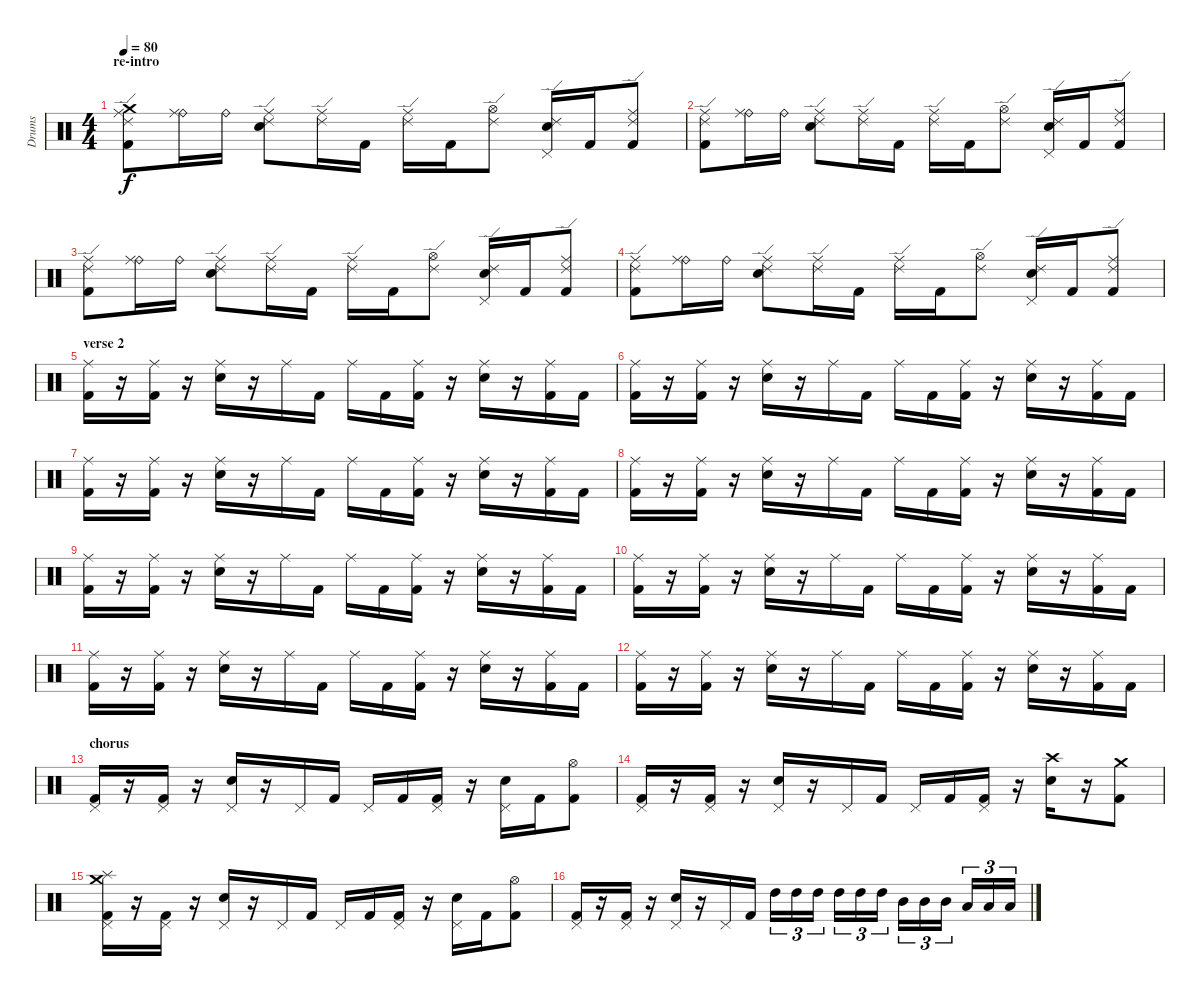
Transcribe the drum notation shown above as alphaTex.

\track ("Drums" "Drums") {instrument percussion}
\staff {score}
\articulation defaults
\ts (4 4)
\section ("" "re-intro")
\tempo 80
\clef neutral
\ks c
("Ride (edge) 2" "Ride (middle)" "Crash medium (hit)" "Kick (hit) 2").8{dy f} ("Ride (bell)" "Ride (middle)").16 "Ride (bell)".16 ("Ride (middle)" "Ride (edge) 2" "Snare (hit) 2").8 ("Ride (edge) 2" "Ride (middle)").16 "Kick (hit) 2".16 ("Ride (edge) 2" "Ride (middle)").16 "Kick (hit) 2".16 ("Ride (edge) 2" "Hi-Hat (open)").8 ("Ride (edge) 2" "Pedal Hi-Hat (hit)" "Snare (hit) 2").16 "Kick (hit) 2".16 ("Ride (edge) 2" "Ride (middle)" "Kick (hit) 2").8 |
("Ride (edge) 2" "Ride (middle)" "Kick (hit) 2").8 ("Ride (bell)" "Ride (middle)").16 "Ride (bell)".16 ("Ride (middle)" "Ride (edge) 2" "Snare (hit) 2").8 ("Ride (edge) 2" "Ride (middle)").16 "Kick (hit) 2".16 ("Ride (edge) 2" "Ride (middle)").16 "Kick (hit) 2".16 ("Ride (edge) 2" "Hi-Hat (open)").8 ("Ride (edge) 2" "Pedal Hi-Hat (hit)" "Snare (hit) 2").16 "Kick (hit) 2".16 ("Ride (edge) 2" "Ride (middle)" "Kick (hit) 2").8 |
("Ride (edge) 2" "Ride (middle)" "Kick (hit) 2").8 ("Ride (bell)" "Ride (middle)").16 "Ride (bell)".16 ("Ride (middle)" "Ride (edge) 2" "Snare (hit) 2").8 ("Ride (edge) 2" "Ride (middle)").16 "Kick (hit) 2".16 ("Ride (edge) 2" "Ride (middle)").16 "Kick (hit) 2".16 ("Ride (edge) 2" "Hi-Hat (open)").8 ("Ride (edge) 2" "Pedal Hi-Hat (hit)" "Snare (hit) 2").16 "Kick (hit) 2".16 ("Ride (edge) 2" "Ride (middle)" "Kick (hit) 2").8 |
("Ride (edge) 2" "Ride (middle)" "Kick (hit) 2").8 ("Ride (bell)" "Ride (middle)").16 "Ride (bell)".16 ("Ride (middle)" "Ride (edge) 2" "Snare (hit) 2").8 ("Ride (edge) 2" "Ride (middle)").16 "Kick (hit) 2".16 ("Ride (edge) 2" "Ride (middle)").16 "Kick (hit) 2".16 ("Ride (edge) 2" "Hi-Hat (open)").8 ("Ride (edge) 2" "Pedal Hi-Hat (hit)" "Snare (hit) 2").16 "Kick (hit) 2".16 ("Ride (edge) 2" "Ride (middle)" "Kick (hit) 2").8 |
\section ("" "verse 2")
("Ride (middle)" "Kick (hit) 2").16 r.16 ("Ride (middle)" "Kick (hit) 2").16 r.16 ("Ride (middle)" "Snare (hit) 2").16 r.16 "Ride (middle)".16 "Kick (hit) 2".16 "Ride (middle)".16 "Kick (hit) 2".16 ("Ride (middle)" "Kick (hit) 2").16 r.16 ("Ride (middle)" "Snare (hit) 2").16 r.16 ("Ride (middle)" "Kick (hit) 2").16 "Kick (hit) 2".16 |
("Ride (middle)" "Kick (hit) 2").16 r.16 ("Ride (middle)" "Kick (hit) 2").16 r.16 ("Ride (middle)" "Snare (hit) 2").16 r.16 "Ride (middle)".16 "Kick (hit) 2".16 "Ride (middle)".16 "Kick (hit) 2".16 ("Ride (middle)" "Kick (hit) 2").16 r.16 ("Ride (middle)" "Snare (hit) 2").16 r.16 ("Ride (middle)" "Kick (hit) 2").16 "Kick (hit) 2".16 |
("Ride (middle)" "Kick (hit) 2").16 r.16 ("Ride (middle)" "Kick (hit) 2").16 r.16 ("Ride (middle)" "Snare (hit) 2").16 r.16 "Ride (middle)".16 "Kick (hit) 2".16 "Ride (middle)".16 "Kick (hit) 2".16 ("Ride (middle)" "Kick (hit) 2").16 r.16 ("Ride (middle)" "Snare (hit) 2").16 r.16 ("Ride (middle)" "Kick (hit) 2").16 "Kick (hit) 2".16 |
("Ride (middle)" "Kick (hit) 2").16 r.16 ("Ride (middle)" "Kick (hit) 2").16 r.16 ("Ride (middle)" "Snare (hit) 2").16 r.16 "Ride (middle)".16 "Kick (hit) 2".16 "Ride (middle)".16 "Kick (hit) 2".16 ("Ride (middle)" "Kick (hit) 2").16 r.16 ("Ride (middle)" "Snare (hit) 2").16 r.16 ("Ride (middle)" "Kick (hit) 2").16 "Kick (hit) 2".16 |
("Ride (middle)" "Kick (hit) 2").16 r.16 ("Ride (middle)" "Kick (hit) 2").16 r.16 ("Ride (middle)" "Snare (hit) 2").16 r.16 "Ride (middle)".16 "Kick (hit) 2".16 "Ride (middle)".16 "Kick (hit) 2".16 ("Ride (middle)" "Kick (hit) 2").16 r.16 ("Ride (middle)" "Snare (hit) 2").16 r.16 ("Ride (middle)" "Kick (hit) 2").16 "Kick (hit) 2".16 |
("Ride (middle)" "Kick (hit) 2").16 r.16 ("Ride (middle)" "Kick (hit) 2").16 r.16 ("Ride (middle)" "Snare (hit) 2").16 r.16 "Ride (middle)".16 "Kick (hit) 2".16 "Ride (middle)".16 "Kick (hit) 2".16 ("Ride (middle)" "Kick (hit) 2").16 r.16 ("Ride (middle)" "Snare (hit) 2").16 r.16 ("Ride (middle)" "Kick (hit) 2").16 "Kick (hit) 2".16 |
("Ride (middle)" "Kick (hit) 2").16 r.16 ("Ride (middle)" "Kick (hit) 2").16 r.16 ("Ride (middle)" "Snare (hit) 2").16 r.16 "Ride (middle)".16 "Kick (hit) 2".16 "Ride (middle)".16 "Kick (hit) 2".16 ("Ride (middle)" "Kick (hit) 2").16 r.16 ("Ride (middle)" "Snare (hit) 2").16 r.16 ("Ride (middle)" "Kick (hit) 2").16 "Kick (hit) 2".16 |
("Ride (middle)" "Kick (hit) 2").16 r.16 ("Ride (middle)" "Kick (hit) 2").16 r.16 ("Ride (middle)" "Snare (hit) 2").16 r.16 "Ride (middle)".16 "Kick (hit) 2".16 "Ride (middle)".16 "Kick (hit) 2".16 ("Ride (middle)" "Kick (hit) 2").16 r.16 ("Ride (middle)" "Snare (hit) 2").16 r.16 ("Ride (middle)" "Kick (hit) 2").16 "Kick (hit) 2".16 |
\section ("" "chorus")
("Pedal Hi-Hat (hit)" "Kick (hit) 2").16 r.16 ("Pedal Hi-Hat (hit)" "Kick (hit) 2").16 r.16 ("Pedal Hi-Hat (hit)" "Snare (hit) 2").16 r.16 "Pedal Hi-Hat (hit)".16 "Kick (hit) 2".16 "Pedal Hi-Hat (hit)".16 "Kick (hit) 2".16 ("Pedal Hi-Hat (hit)" "Kick (hit) 2").16 r.16 ("Pedal Hi-Hat (hit)" "Snare (hit) 2").16 "Kick (hit) 2".16 ("Hi-Hat (open)" "Kick (hit) 2").8 |
("Pedal Hi-Hat (hit)" "Kick (hit) 2").16 r.16 ("Pedal Hi-Hat (hit)" "Kick (hit) 2").16 r.16 ("Pedal Hi-Hat (hit)" "Snare (hit) 2").16 r.16 "Pedal Hi-Hat (hit)".16 "Kick (hit) 2".16 "Pedal Hi-Hat (hit)".16 "Kick (hit) 2".16 ("Pedal Hi-Hat (hit)" "Kick (hit) 2").16 r.16 ("Crash high (hit)" "Snare (hit) 2").16 r.16 ("Crash medium (hit)" "Kick (hit) 2").8 |
("Pedal Hi-Hat (hit)" "Splash (hit)" "Crash medium (hit)" "Kick (hit) 2").16 r.16 ("Pedal Hi-Hat (hit)" "Kick (hit) 2").16 r.16 ("Pedal Hi-Hat (hit)" "Snare (hit) 2").16 r.16 "Pedal Hi-Hat (hit)".16 "Kick (hit) 2".16 "Pedal Hi-Hat (hit)".16 "Kick (hit) 2".16 ("Pedal Hi-Hat (hit)" "Kick (hit) 2").16 r.16 ("Pedal Hi-Hat (hit)" "Snare (hit) 2").16 "Kick (hit) 2".16 ("Hi-Hat (open)" "Kick (hit) 2").8 |
("Pedal Hi-Hat (hit)" "Kick (hit) 2").16 r.16 ("Pedal Hi-Hat (hit)" "Kick (hit) 2").16 r.16 ("Pedal Hi-Hat (hit)" "Snare (hit) 2").16 r.16 "Pedal Hi-Hat (hit)".16 "Kick (hit) 2".16 "High Tom (hit)".16{tu (3 2)} "High Tom (hit)".16{tu (3 2)} "High Tom (hit)".16{tu (3 2)} "High Tom (hit)".16{tu (3 2)} "High Tom (hit)".16{tu (3 2)} "High Tom (hit)".16{tu (3 2)} "Mid Tom (hit)".16{tu (3 2)} "Mid Tom (hit)".16{tu (3 2)} "Mid Tom (hit)".16{tu (3 2)} "Low Tom (hit)".16{tu (3 2)} "Low Tom (hit)".16{tu (3 2)} "Low Tom (hit)".16{tu (3 2)}
